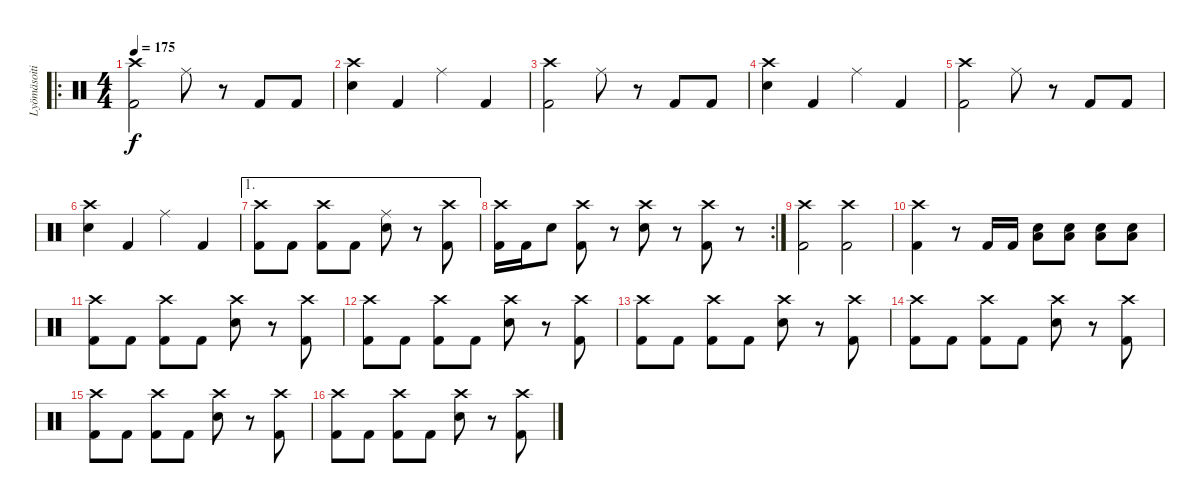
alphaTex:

\track ("Lyömäsoitin" "Lyömäsoiti") {instrument percussion}
\staff {score}
\articulation defaults
\ro
\ts (4 4)
\tempo 175
\clef neutral
\ks c
("Kick (hit) 2" "Crash high (hit)").2{dy f} "Ride (middle)".8 r.8 "Kick (hit) 2".8 "Kick (hit) 2".8 |
("Electric Snare (hit)" "Crash high (hit)").4 "Kick (hit) 2".4 "Ride (middle)".4 "Kick (hit) 2".4 |
("Kick (hit) 2" "Crash high (hit)").2 "Ride (middle)".8 r.8 "Kick (hit) 2".8 "Kick (hit) 2".8 |
("Electric Snare (hit)" "Crash high (hit)").4 "Kick (hit) 2".4 "Ride (middle)".4 "Kick (hit) 2".4 |
("Kick (hit) 2" "Crash high (hit)").2 "Ride (middle)".8 r.8 "Kick (hit) 2".8 "Kick (hit) 2".8 |
("Electric Snare (hit)" "Crash high (hit)").4 "Kick (hit) 2".4 "Ride (middle)".4 "Kick (hit) 2".4 |
\ae 1
("Kick (hit) 2" "Crash high (hit)").8 "Kick (hit) 2".8 ("Kick (hit) 2" "Crash high (hit)").8 "Kick (hit) 2".8 ("Electric Snare (hit)" "Ride (middle)").8 r.8 ("Kick (hit) 2" "Crash high (hit)").8 |
\rc 2
("Kick (hit) 2" "Crash high (hit)").16 "Kick (hit) 2".16 "Electric Snare (hit)".8 ("Kick (hit) 2" "Crash high (hit)").8 r.8 ("Electric Snare (hit)" "Crash high (hit)").8 r.8 ("Kick (hit) 2" "Crash high (hit)").8 r.8 |
("Kick (hit) 2" "Crash high (hit)").2 ("Kick (hit) 2" "Crash high (hit)").2 |
("Kick (hit) 2" "Crash high (hit)").4 r.8 "Kick (hit) 2".16 "Kick (hit) 2".16 ("Electric Snare (hit)" "Low Floor Tom (hit)").8 ("Electric Snare (hit)" "Low Floor Tom (hit)").8 ("Electric Snare (hit)" "Low Floor Tom (hit)").8 ("Electric Snare (hit)" "Low Floor Tom (hit)").8 |
("Kick (hit) 2" "Crash high (hit)").8 "Kick (hit) 2".8 ("Kick (hit) 2" "Crash high (hit)").8 "Kick (hit) 2".8 ("Electric Snare (hit)" "Crash high (hit)").8 r.8 ("Kick (hit) 2" "Crash high (hit)").8 |
("Kick (hit) 2" "Crash high (hit)").8 "Kick (hit) 2".8 ("Kick (hit) 2" "Crash high (hit)").8 "Kick (hit) 2".8 ("Electric Snare (hit)" "Crash high (hit)").8 r.8 ("Kick (hit) 2" "Crash high (hit)").8 |
("Kick (hit) 2" "Crash high (hit)").8 "Kick (hit) 2".8 ("Kick (hit) 2" "Crash high (hit)").8 "Kick (hit) 2".8 ("Electric Snare (hit)" "Crash high (hit)").8 r.8 ("Kick (hit) 2" "Crash high (hit)").8 |
("Kick (hit) 2" "Crash high (hit)").8 "Kick (hit) 2".8 ("Kick (hit) 2" "Crash high (hit)").8 "Kick (hit) 2".8 ("Electric Snare (hit)" "Crash high (hit)").8 r.8 ("Kick (hit) 2" "Crash high (hit)").8 |
("Kick (hit) 2" "Crash high (hit)").8 "Kick (hit) 2".8 ("Kick (hit) 2" "Crash high (hit)").8 "Kick (hit) 2".8 ("Electric Snare (hit)" "Crash high (hit)").8 r.8 ("Kick (hit) 2" "Crash high (hit)").8 |
("Kick (hit) 2" "Crash high (hit)").8 "Kick (hit) 2".8 ("Kick (hit) 2" "Crash high (hit)").8 "Kick (hit) 2".8 ("Electric Snare (hit)" "Crash high (hit)").8 r.8 ("Kick (hit) 2" "Crash high (hit)").8
